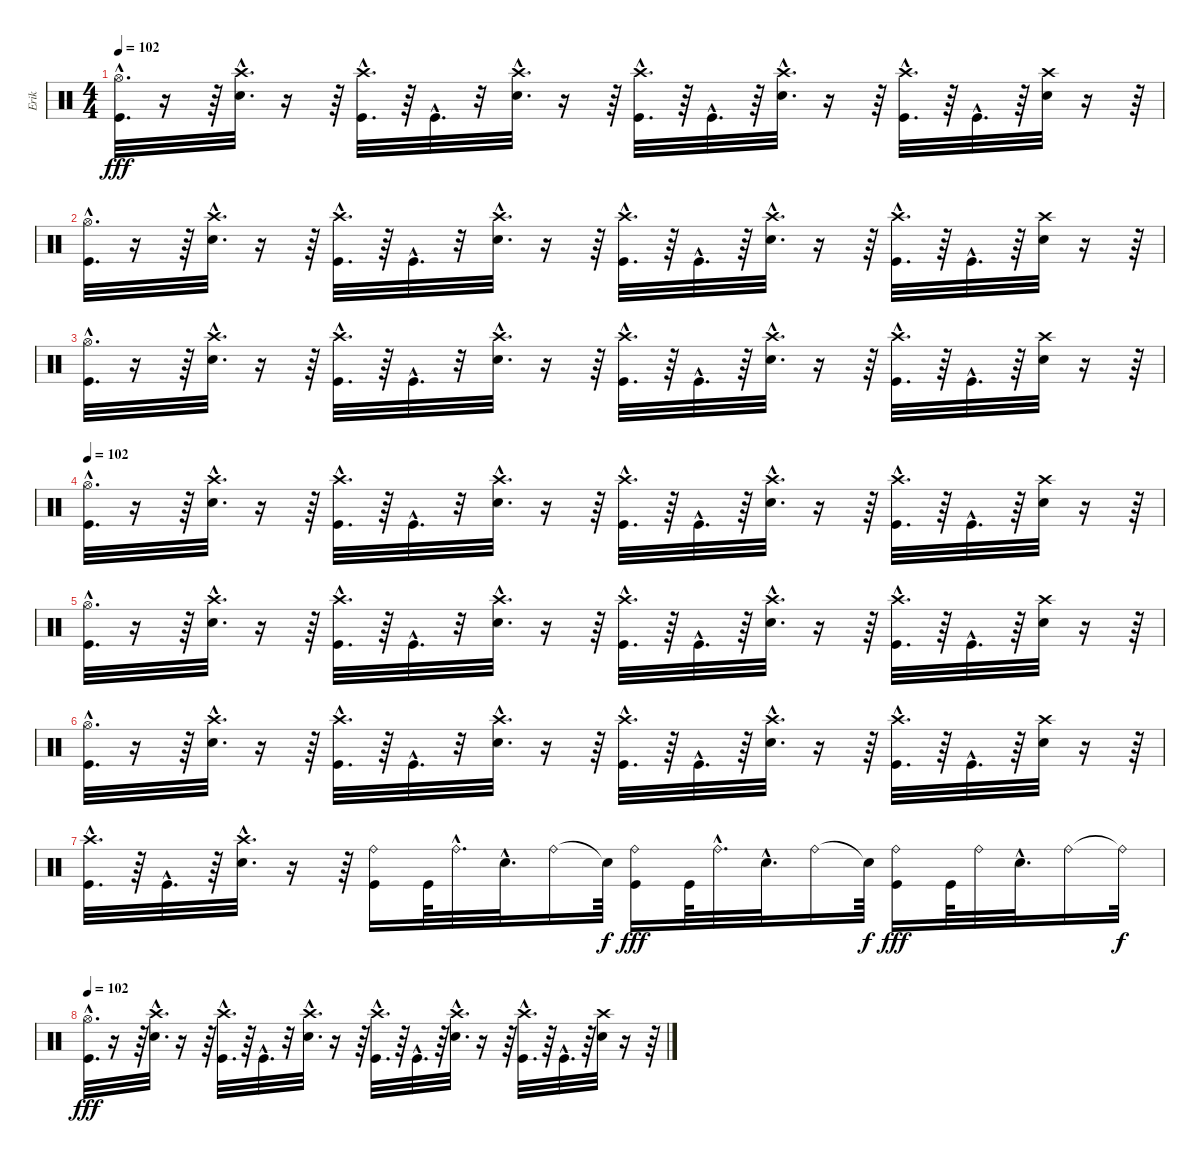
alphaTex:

\track ("Erik" "Erik") {instrument percussion}
\staff {score}
\articulation defaults
\ts (4 4)
\tempo 102
\clef neutral
\ks c
("Hi-Hat (open)"{hac} "Kick (hit)"{hac}).32{d dy fff} r.16 r.64 ("Crash high (hit)"{hac} "Electric Snare (hit)"{hac}).32{d} r.16 r.64 ("Kick (hit)"{hac} "Crash high (hit)"{hac}).32{d} r.64 "Kick (hit)"{hac}.32{d} r.32 ("Crash high (hit)"{hac} "Electric Snare (hit)"{hac}).32{d} r.16 r.64 ("Crash high (hit)"{hac} "Kick (hit)"{hac}).32{d} r.64 "Kick (hit)"{hac}.32{d} r.64 ("Crash high (hit)"{hac} "Electric Snare (hit)"{hac}).32{d} r.16 r.64 ("Kick (hit)"{hac} "Crash high (hit)"{hac}).32{d} r.64 "Kick (hit)"{hac}.32{d} r.64 ("Electric Snare (hit)" "Crash high (hit)").32 r.16 r.64 |
("Hi-Hat (open)"{hac} "Kick (hit)"{hac}).32{d} r.16 r.64 ("Crash high (hit)"{hac} "Electric Snare (hit)"{hac}).32{d} r.16 r.64 ("Kick (hit)"{hac} "Crash high (hit)"{hac}).32{d} r.64 "Kick (hit)"{hac}.32{d} r.32 ("Crash high (hit)"{hac} "Electric Snare (hit)"{hac}).32{d} r.16 r.64 ("Crash high (hit)"{hac} "Kick (hit)"{hac}).32{d} r.64 "Kick (hit)"{hac}.32{d} r.64 ("Crash high (hit)"{hac} "Electric Snare (hit)"{hac}).32{d} r.16 r.64 ("Kick (hit)"{hac} "Crash high (hit)"{hac}).32{d} r.64 "Kick (hit)"{hac}.32{d} r.64 ("Electric Snare (hit)" "Crash high (hit)").32 r.16 r.64 |
("Hi-Hat (open)"{hac} "Kick (hit)"{hac}).32{d} r.16 r.64 ("Crash high (hit)"{hac} "Electric Snare (hit)"{hac}).32{d} r.16 r.64 ("Kick (hit)"{hac} "Crash high (hit)"{hac}).32{d} r.64 "Kick (hit)"{hac}.32{d} r.32 ("Crash high (hit)"{hac} "Electric Snare (hit)"{hac}).32{d} r.16 r.64 ("Crash high (hit)"{hac} "Kick (hit)"{hac}).32{d} r.64 "Kick (hit)"{hac}.32{d} r.64 ("Crash high (hit)"{hac} "Electric Snare (hit)"{hac}).32{d} r.16 r.64 ("Kick (hit)"{hac} "Crash high (hit)"{hac}).32{d} r.64 "Kick (hit)"{hac}.32{d} r.64 ("Electric Snare (hit)" "Crash high (hit)").32 r.16 r.64 |
\tempo 102
("Hi-Hat (open)"{hac} "Kick (hit)"{hac}).32{d} r.16 r.64 ("Crash high (hit)"{hac} "Electric Snare (hit)"{hac}).32{d} r.16 r.64 ("Kick (hit)"{hac} "Crash high (hit)"{hac}).32{d} r.64 "Kick (hit)"{hac}.32{d} r.32 ("Crash high (hit)"{hac} "Electric Snare (hit)"{hac}).32{d} r.16 r.64 ("Crash high (hit)"{hac} "Kick (hit)"{hac}).32{d} r.64 "Kick (hit)"{hac}.32{d} r.64 ("Crash high (hit)"{hac} "Electric Snare (hit)"{hac}).32{d} r.16 r.64 ("Kick (hit)"{hac} "Crash high (hit)"{hac}).32{d} r.64 "Kick (hit)"{hac}.32{d} r.64 ("Electric Snare (hit)" "Crash high (hit)").32 r.16 r.64 |
("Hi-Hat (open)"{hac} "Kick (hit)"{hac}).32{d} r.16 r.64 ("Crash high (hit)"{hac} "Electric Snare (hit)"{hac}).32{d} r.16 r.64 ("Kick (hit)"{hac} "Crash high (hit)"{hac}).32{d} r.64 "Kick (hit)"{hac}.32{d} r.32 ("Crash high (hit)"{hac} "Electric Snare (hit)"{hac}).32{d} r.16 r.64 ("Crash high (hit)"{hac} "Kick (hit)"{hac}).32{d} r.64 "Kick (hit)"{hac}.32{d} r.64 ("Crash high (hit)"{hac} "Electric Snare (hit)"{hac}).32{d} r.16 r.64 ("Kick (hit)"{hac} "Crash high (hit)"{hac}).32{d} r.64 "Kick (hit)"{hac}.32{d} r.64 ("Electric Snare (hit)" "Crash high (hit)").32 r.16 r.64 |
("Hi-Hat (open)"{hac} "Kick (hit)"{hac}).32{d} r.16 r.64 ("Crash high (hit)"{hac} "Electric Snare (hit)"{hac}).32{d} r.16 r.64 ("Kick (hit)"{hac} "Crash high (hit)"{hac}).32{d} r.64 "Kick (hit)"{hac}.32{d} r.32 ("Crash high (hit)"{hac} "Electric Snare (hit)"{hac}).32{d} r.16 r.64 ("Crash high (hit)"{hac} "Kick (hit)"{hac}).32{d} r.64 "Kick (hit)"{hac}.32{d} r.64 ("Crash high (hit)"{hac} "Electric Snare (hit)"{hac}).32{d} r.16 r.64 ("Kick (hit)"{hac} "Crash high (hit)"{hac}).32{d} r.64 "Kick (hit)"{hac}.32{d} r.64 ("Electric Snare (hit)" "Crash high (hit)").32 r.16 r.64 |
("Crash high (hit)"{hac} "Kick (hit)"{hac}).32{d} r.64 "Kick (hit)"{hac}.32{d} r.64 ("Crash high (hit)"{hac} "Electric Snare (hit)"{hac}).32{d} r.16 r.64 ("Kick (hit)" "Ride (bell)").16 "Kick (hit)".64 "Ride (bell)"{hac}.32{d} "Electric Snare (hit)"{hac}.32{d} "Ride (bell)".16 "Snare (hit)"{t}.64{dy f} ("Ride (bell)" "Kick (hit)").16{dy fff} "Kick (hit)".64 "Ride (bell)"{hac}.32{d} "Electric Snare (hit)"{hac}.32{d} "Ride (bell)".16 "Snare (hit)"{t}.64{dy f} ("Ride (bell)" "Kick (hit)").16{dy fff} "Kick (hit)".64 "Ride (bell)".32 "Electric Snare (hit)"{hac}.32{d} "Ride (bell)".16 "Ride (bell)"{t}.32{dy f} |
\tempo 102
("Hi-Hat (open)"{hac} "Kick (hit)"{hac}).32{d dy fff} r.16 r.64 ("Crash high (hit)"{hac} "Electric Snare (hit)"{hac}).32{d} r.16 r.64 ("Kick (hit)"{hac} "Crash high (hit)"{hac}).32{d} r.64 "Kick (hit)"{hac}.32{d} r.32 ("Crash high (hit)"{hac} "Electric Snare (hit)"{hac}).32{d} r.16 r.64 ("Crash high (hit)"{hac} "Kick (hit)"{hac}).32{d} r.64 "Kick (hit)"{hac}.32{d} r.64 ("Crash high (hit)"{hac} "Electric Snare (hit)"{hac}).32{d} r.16 r.64 ("Kick (hit)"{hac} "Crash high (hit)"{hac}).32{d} r.64 "Kick (hit)"{hac}.32{d} r.64 ("Electric Snare (hit)" "Crash high (hit)").32 r.16 r.64
